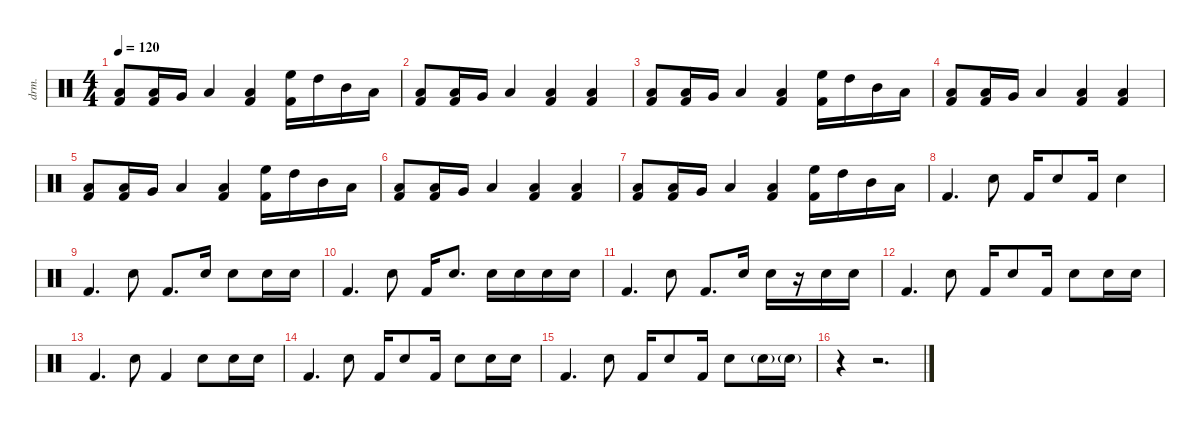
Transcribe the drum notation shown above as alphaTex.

\defaultSystemsLayout 4
\hideDynamics
\bracketExtendMode nobrackets
\otherSystemsTrackNameOrientation horizontal
\track ("Batterie" "drm.") {instrument percussion}
\staff {score}
\articulation defaults
\ts (4 4)
\tempo 120
\clef neutral
\ks c
("Low Floor Tom (hit)" "Kick (hit) 2").8{dy f} ("Low Floor Tom (hit)" "Kick (hit) 2").16 "Very Low Tom (hit)".16 "Low Floor Tom (hit)".4 ("Low Floor Tom (hit)" "Kick (hit) 2").4 ("High Floor Tom (hit)" "Kick (hit) 2").16 "High Tom (hit)".16 "Mid Tom (hit)".16 "Low Tom (hit)".16 |
("Low Floor Tom (hit)" "Kick (hit) 2").8 ("Low Floor Tom (hit)" "Kick (hit) 2").16 "Very Low Tom (hit)".16 "Low Floor Tom (hit)".4 ("Low Floor Tom (hit)" "Kick (hit) 2").4 ("Low Floor Tom (hit)" "Kick (hit) 2").4 |
("Low Floor Tom (hit)" "Kick (hit) 2").8 ("Low Floor Tom (hit)" "Kick (hit) 2").16 "Very Low Tom (hit)".16 "Low Floor Tom (hit)".4 ("Low Floor Tom (hit)" "Kick (hit) 2").4 ("High Floor Tom (hit)" "Kick (hit) 2").16 "High Tom (hit)".16 "Mid Tom (hit)".16 "Low Tom (hit)".16 |
("Low Floor Tom (hit)" "Kick (hit) 2").8 ("Low Floor Tom (hit)" "Kick (hit) 2").16 "Very Low Tom (hit)".16 "Low Floor Tom (hit)".4 ("Low Floor Tom (hit)" "Kick (hit) 2").4 ("Low Floor Tom (hit)" "Kick (hit) 2").4 |
("Low Floor Tom (hit)" "Kick (hit) 2").8 ("Low Floor Tom (hit)" "Kick (hit) 2").16 "Very Low Tom (hit)".16 "Low Floor Tom (hit)".4 ("Low Floor Tom (hit)" "Kick (hit) 2").4 ("High Floor Tom (hit)" "Kick (hit) 2").16 "High Tom (hit)".16 "Mid Tom (hit)".16 "Low Tom (hit)".16 |
("Low Floor Tom (hit)" "Kick (hit) 2").8 ("Low Floor Tom (hit)" "Kick (hit) 2").16 "Very Low Tom (hit)".16 "Low Floor Tom (hit)".4 ("Low Floor Tom (hit)" "Kick (hit) 2").4 ("Low Floor Tom (hit)" "Kick (hit) 2").4 |
("Low Floor Tom (hit)" "Kick (hit) 2").8 ("Low Floor Tom (hit)" "Kick (hit) 2").16 "Very Low Tom (hit)".16 "Low Floor Tom (hit)".4 ("Low Floor Tom (hit)" "Kick (hit) 2").4 ("High Floor Tom (hit)" "Kick (hit) 2").16 "High Tom (hit)".16 "Mid Tom (hit)".16 "Low Tom (hit)".16 |
"Kick (hit) 2".4{d} "Snare (hit) 2".8 "Kick (hit) 2".16 "Snare (hit) 2".8 "Kick (hit) 2".16 "Snare (hit) 2".4 |
"Kick (hit) 2".4{d} "Snare (hit) 2".8 "Kick (hit) 2".8{d} "Snare (hit) 2".16 "Snare (hit) 2".8 "Snare (hit) 2".16 "Snare (hit) 2".16 |
"Kick (hit) 2".4{d} "Snare (hit) 2".8 "Kick (hit) 2".16 "Snare (hit) 2".8{d} "Snare (hit) 2".16 "Snare (hit) 2".16 "Snare (hit) 2".16 "Snare (hit) 2".16 |
"Kick (hit) 2".4{d} "Snare (hit) 2".8 "Kick (hit) 2".8{d} "Snare (hit) 2".16 "Snare (hit) 2".16 r.16 "Snare (hit) 2".16 "Snare (hit) 2".16 |
"Kick (hit) 2".4{d} "Snare (hit) 2".8 "Kick (hit) 2".16 "Snare (hit) 2".8 "Kick (hit) 2".16 "Snare (hit) 2".8 "Snare (hit) 2".16 "Snare (hit) 2".16 |
"Kick (hit) 2".4{d} "Snare (hit) 2".8 "Kick (hit) 2".4 "Snare (hit) 2".8 "Snare (hit) 2".16 "Snare (hit) 2".16 |
"Kick (hit) 2".4{d} "Snare (hit) 2".8 "Kick (hit) 2".16 "Snare (hit) 2".8 "Kick (hit) 2".16 "Snare (hit) 2".8 "Snare (hit) 2".16 "Snare (hit) 2".16 |
"Kick (hit) 2".4{d} "Snare (hit) 2".8 "Kick (hit) 2".16 "Snare (hit) 2".8 "Kick (hit) 2".16 "Snare (hit) 2".8 "Snare (hit) 2"{g}.16 "Snare (hit) 2"{g}.16 |
r.4 r.2{d}
